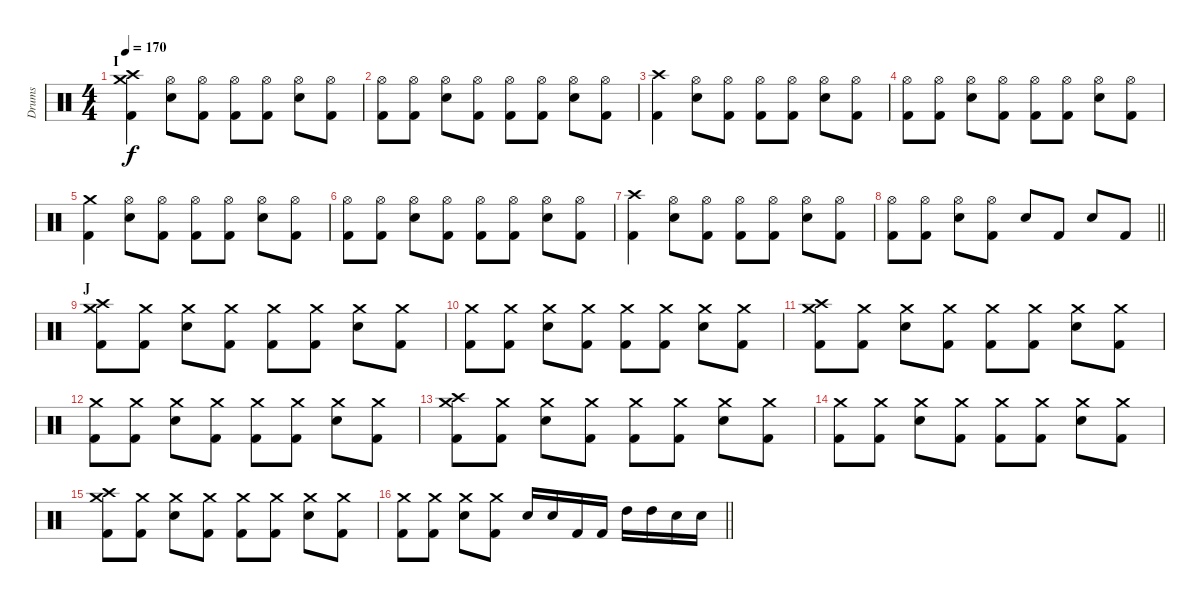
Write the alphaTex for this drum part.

\track ("Drums" "Drums") {instrument percussion}
\staff {score}
\articulation defaults
\ts (4 4)
\section ("" "I")
\tempo 170
\clef neutral
\ks c
("Kick (hit) 2" "Crash high (hit)" "Crash medium (hit)").4{dy f} ("Snare (hit) 2" "Hi-Hat (open)").8 ("Kick (hit) 2" "Hi-Hat (open)").8 ("Kick (hit) 2" "Hi-Hat (open)").8 ("Kick (hit) 2" "Hi-Hat (open)").8 ("Snare (hit) 2" "Hi-Hat (open)").8 ("Kick (hit) 2" "Hi-Hat (open)").8 |
("Kick (hit) 2" "Hi-Hat (open)").8 ("Kick (hit) 2" "Hi-Hat (open)").8 ("Snare (hit) 2" "Hi-Hat (open)").8 ("Kick (hit) 2" "Hi-Hat (open)").8 ("Kick (hit) 2" "Hi-Hat (open)").8 ("Kick (hit) 2" "Hi-Hat (open)").8 ("Snare (hit) 2" "Hi-Hat (open)").8 ("Kick (hit) 2" "Hi-Hat (open)").8 |
("Kick (hit) 2" "Crash high (hit)").4 ("Snare (hit) 2" "Hi-Hat (open)").8 ("Kick (hit) 2" "Hi-Hat (open)").8 ("Kick (hit) 2" "Hi-Hat (open)").8 ("Kick (hit) 2" "Hi-Hat (open)").8 ("Snare (hit) 2" "Hi-Hat (open)").8 ("Kick (hit) 2" "Hi-Hat (open)").8 |
("Kick (hit) 2" "Hi-Hat (open)").8 ("Kick (hit) 2" "Hi-Hat (open)").8 ("Snare (hit) 2" "Hi-Hat (open)").8 ("Kick (hit) 2" "Hi-Hat (open)").8 ("Kick (hit) 2" "Hi-Hat (open)").8 ("Kick (hit) 2" "Hi-Hat (open)").8 ("Snare (hit) 2" "Hi-Hat (open)").8 ("Kick (hit) 2" "Hi-Hat (open)").8 |
("Kick (hit) 2" "Crash medium (hit)").4 ("Snare (hit) 2" "Hi-Hat (open)").8 ("Kick (hit) 2" "Hi-Hat (open)").8 ("Kick (hit) 2" "Hi-Hat (open)").8 ("Kick (hit) 2" "Hi-Hat (open)").8 ("Snare (hit) 2" "Hi-Hat (open)").8 ("Kick (hit) 2" "Hi-Hat (open)").8 |
("Kick (hit) 2" "Hi-Hat (open)").8 ("Kick (hit) 2" "Hi-Hat (open)").8 ("Snare (hit) 2" "Hi-Hat (open)").8 ("Kick (hit) 2" "Hi-Hat (open)").8 ("Kick (hit) 2" "Hi-Hat (open)").8 ("Kick (hit) 2" "Hi-Hat (open)").8 ("Snare (hit) 2" "Hi-Hat (open)").8 ("Kick (hit) 2" "Hi-Hat (open)").8 |
("Kick (hit) 2" "Crash high (hit)").4 ("Snare (hit) 2" "Hi-Hat (open)").8 ("Kick (hit) 2" "Hi-Hat (open)").8 ("Kick (hit) 2" "Hi-Hat (open)").8 ("Kick (hit) 2" "Hi-Hat (open)").8 ("Snare (hit) 2" "Hi-Hat (open)").8 ("Kick (hit) 2" "Hi-Hat (open)").8 |
\barLineRight lightlight
("Kick (hit) 2" "Hi-Hat (open)").8 ("Kick (hit) 2" "Hi-Hat (open)").8 ("Snare (hit) 2" "Hi-Hat (open)").8 ("Kick (hit) 2" "Hi-Hat (open)").8 "Snare (hit) 2".8 "Kick (hit) 2".8 "Snare (hit) 2".8 "Kick (hit) 2".8 |
\section ("" "J")
("Kick (hit) 2" "Crash high (hit)" "Crash medium (hit)").8 ("Kick (hit) 2" "Crash medium (hit)").8 ("Snare (hit) 2" "Crash medium (hit)").8 ("Kick (hit) 2" "Crash medium (hit)").8 ("Kick (hit) 2" "Crash medium (hit)").8 ("Kick (hit) 2" "Crash medium (hit)").8 ("Snare (hit) 2" "Crash medium (hit)").8 ("Kick (hit) 2" "Crash medium (hit)").8 |
("Kick (hit) 2" "Crash medium (hit)").8 ("Kick (hit) 2" "Crash medium (hit)").8 ("Snare (hit) 2" "Crash medium (hit)").8 ("Kick (hit) 2" "Crash medium (hit)").8 ("Kick (hit) 2" "Crash medium (hit)").8 ("Kick (hit) 2" "Crash medium (hit)").8 ("Snare (hit) 2" "Crash medium (hit)").8 ("Kick (hit) 2" "Crash medium (hit)").8 |
("Kick (hit) 2" "Crash high (hit)" "Crash medium (hit)").8 ("Kick (hit) 2" "Crash medium (hit)").8 ("Snare (hit) 2" "Crash medium (hit)").8 ("Kick (hit) 2" "Crash medium (hit)").8 ("Kick (hit) 2" "Crash medium (hit)").8 ("Kick (hit) 2" "Crash medium (hit)").8 ("Snare (hit) 2" "Crash medium (hit)").8 ("Kick (hit) 2" "Crash medium (hit)").8 |
("Kick (hit) 2" "Crash medium (hit)").8 ("Kick (hit) 2" "Crash medium (hit)").8 ("Snare (hit) 2" "Crash medium (hit)").8 ("Kick (hit) 2" "Crash medium (hit)").8 ("Kick (hit) 2" "Crash medium (hit)").8 ("Kick (hit) 2" "Crash medium (hit)").8 ("Snare (hit) 2" "Crash medium (hit)").8 ("Kick (hit) 2" "Crash medium (hit)").8 |
("Kick (hit) 2" "Crash high (hit)" "Crash medium (hit)").8 ("Kick (hit) 2" "Crash medium (hit)").8 ("Snare (hit) 2" "Crash medium (hit)").8 ("Kick (hit) 2" "Crash medium (hit)").8 ("Kick (hit) 2" "Crash medium (hit)").8 ("Kick (hit) 2" "Crash medium (hit)").8 ("Snare (hit) 2" "Crash medium (hit)").8 ("Kick (hit) 2" "Crash medium (hit)").8 |
("Kick (hit) 2" "Crash medium (hit)").8 ("Kick (hit) 2" "Crash medium (hit)").8 ("Snare (hit) 2" "Crash medium (hit)").8 ("Kick (hit) 2" "Crash medium (hit)").8 ("Kick (hit) 2" "Crash medium (hit)").8 ("Kick (hit) 2" "Crash medium (hit)").8 ("Snare (hit) 2" "Crash medium (hit)").8 ("Kick (hit) 2" "Crash medium (hit)").8 |
("Kick (hit) 2" "Crash high (hit)" "Crash medium (hit)").8 ("Kick (hit) 2" "Crash medium (hit)").8 ("Snare (hit) 2" "Crash medium (hit)").8 ("Kick (hit) 2" "Crash medium (hit)").8 ("Kick (hit) 2" "Crash medium (hit)").8 ("Kick (hit) 2" "Crash medium (hit)").8 ("Snare (hit) 2" "Crash medium (hit)").8 ("Kick (hit) 2" "Crash medium (hit)").8 |
\barLineRight lightlight
("Kick (hit) 2" "Crash medium (hit)").8 ("Kick (hit) 2" "Crash medium (hit)").8 ("Snare (hit) 2" "Crash medium (hit)").8 ("Kick (hit) 2" "Crash medium (hit)").8 "Snare (hit) 2".16 "Snare (hit) 2".16 "Kick (hit) 2".16 "Kick (hit) 2".16 "High Tom (hit)".16 "High Tom (hit)".16 "Snare (hit) 2".16 "Snare (hit) 2".16
